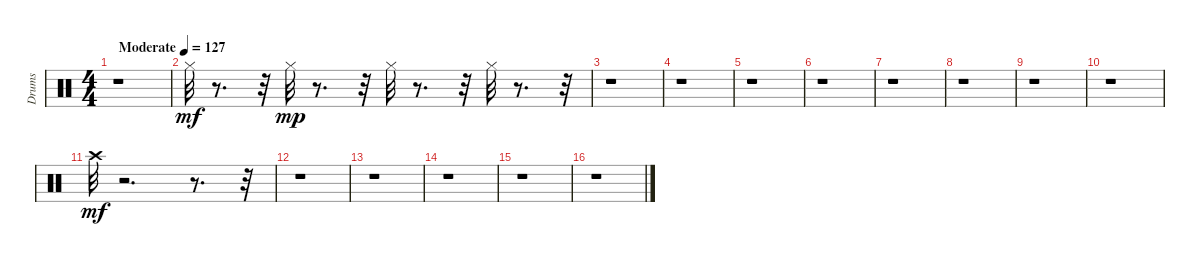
\track ("Drums               " "Drums     ") {instrument percussion}
\staff {score}
\articulation defaults
\ts (4 4)
\tempo (127 "Moderate")
\clef neutral
\ks c
r.1{dy mf} |
"Hi-Hat (closed)".32 r.8{d} r.32 "Hi-Hat (closed)".32{dy mp} r.8{d} r.32 "Hi-Hat (closed)".32 r.8{d} r.32 "Hi-Hat (closed)".32 r.8{d} r.32 |
r.1 |
r.1 |
r.1 |
r.1 |
r.1 |
r.1 |
r.1 |
r.1 |
"Crash high (hit)".32{dy mf} r.2{d} r.8{d} r.32 |
r.1 |
r.1 |
r.1 |
r.1 |
r.1
